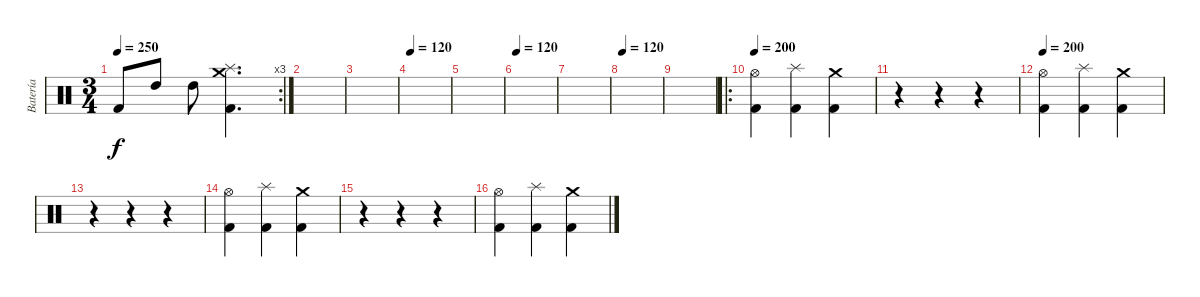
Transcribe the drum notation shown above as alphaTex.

\track ("Batería" "Batería") {instrument percussion}
\staff {score}
\articulation defaults
\rc 3
\ts (3 4)
\tempo 250
\clef neutral
\ks c "Kick (hit) 2".8{dy f} "High Tom (hit)".8 "High Tom (hit)".8
("Kick (hit) 2" "Crash medium (hit)" "Splash (hit)").4{d} |
|
|
\tempo 120
|
|
\tempo 120
|
|
\tempo 120
|
|
\ro
\tempo 200
("Kick (hit) 2" "Hi-Hat (open)").4 ("Kick (hit) 2" "Splash (hit)").4 ("Kick (hit) 2" "Crash medium (hit)").4 |
r.4 r.4 r.4 |
\tempo 200
("Kick (hit) 2" "Hi-Hat (open)").4 ("Kick (hit) 2" "Splash (hit)").4 ("Kick (hit) 2" "Crash medium (hit)").4 |
r.4 r.4 r.4 |
("Kick (hit) 2" "Hi-Hat (open)").4 ("Kick (hit) 2" "Splash (hit)").4 ("Kick (hit) 2" "Crash medium (hit)").4 |
r.4 r.4 r.4 |
("Kick (hit) 2" "Hi-Hat (open)").4 ("Kick (hit) 2" "Splash (hit)").4 ("Kick (hit) 2" "Crash medium (hit)").4
